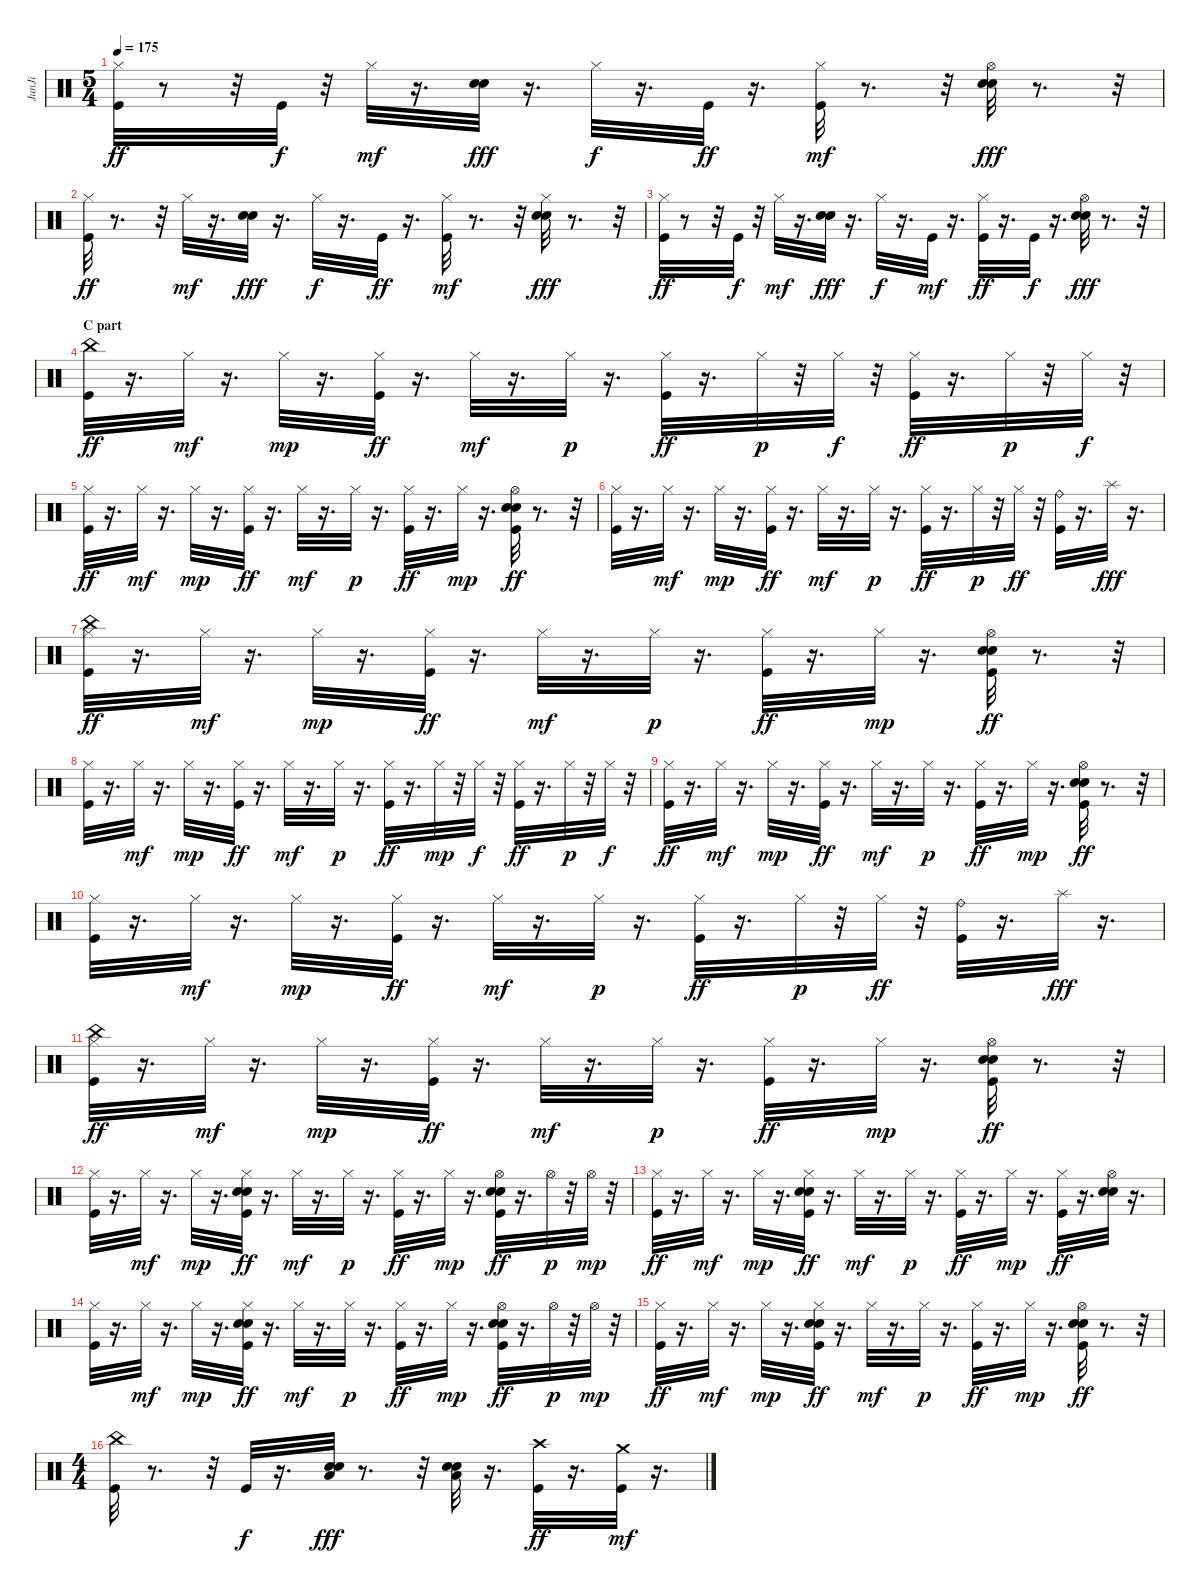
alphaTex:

\track ("JunJi" "JunJi") {instrument percussion}
\staff {score}
\articulation defaults
\ts (5 4)
\tempo 175
\clef neutral
\ks c
("Hi-Hat (closed)" "Kick (hit)").32{dy ff} r.8 r.32 "Kick (hit)".32{dy f} r.32 "Hi-Hat (closed)".32{dy mf} r.16{d} ("Electric Snare (hit)" "Snare (hit) 2").32{dy fff} r.16{d} "Hi-Hat (closed)".32{dy f} r.16{d} "Kick (hit)".32{dy ff} r.16{d} ("Hi-Hat (closed)" "Kick (hit)").32{dy mf} r.8{d} r.32 ("Hi-Hat (open)" "Electric Snare (hit)" "Snare (hit) 2").32{dy fff} r.8{d} r.32 |
("Hi-Hat (closed)" "Kick (hit)").32{dy ff} r.8{d} r.32 "Hi-Hat (closed)".32{dy mf} r.16{d} ("Electric Snare (hit)" "Snare (hit) 2").32{dy fff} r.16{d} "Hi-Hat (closed)".32{dy f} r.16{d} "Kick (hit)".32{dy ff} r.16{d} ("Hi-Hat (closed)" "Kick (hit)").32{dy mf} r.8{d} r.32 ("Hi-Hat (closed)" "Electric Snare (hit)" "Snare (hit) 2").32{dy fff} r.8{d} r.32 |
("Hi-Hat (closed)" "Kick (hit)").32{dy ff} r.8 r.32 "Kick (hit)".32{dy f} r.32 "Hi-Hat (closed)".32{dy mf} r.16{d} ("Electric Snare (hit)" "Snare (hit) 2").32{dy fff} r.16{d} "Hi-Hat (closed)".32{dy f} r.16{d} "Kick (hit)".32{dy mf} r.16{d} ("Hi-Hat (closed)" "Kick (hit)").32{dy ff} r.16{d} "Kick (hit)".32{dy f} r.16{d} ("Hi-Hat (open)" "Electric Snare (hit)" "Snare (hit) 2").32{dy fff} r.8{d} r.32 |
\section ("" "C part")
("China (hit)" "Kick (hit)").32{dy ff} r.16{d} "Hi-Hat (closed)".32{dy mf} r.16{d} "Hi-Hat (closed)".32{dy mp} r.16{d} ("Hi-Hat (closed)" "Kick (hit)").32{dy ff} r.16{d} "Hi-Hat (closed)".32{dy mf} r.16{d} "Hi-Hat (closed)".32{dy p} r.16{d} ("Hi-Hat (closed)" "Kick (hit)").32{dy ff} r.16{d} "Hi-Hat (closed)".32{dy p} r.32 "Hi-Hat (closed)".32{dy f} r.32 ("Hi-Hat (closed)" "Kick (hit)").32{dy ff} r.16{d} "Hi-Hat (closed)".32{dy p} r.32 "Hi-Hat (closed)".32{dy f} r.32 |
("Hi-Hat (closed)" "Kick (hit)").32{dy ff} r.16{d} "Hi-Hat (closed)".32{dy mf} r.16{d} "Hi-Hat (closed)".32{dy mp} r.16{d} ("Hi-Hat (closed)" "Kick (hit)").32{dy ff} r.16{d} "Hi-Hat (closed)".32{dy mf} r.16{d} "Hi-Hat (closed)".32{dy p} r.16{d} ("Hi-Hat (closed)" "Kick (hit)").32{dy ff} r.16{d} "Hi-Hat (closed)".32{dy mp} r.16{d} ("Hi-Hat (open)" "Electric Snare (hit)" "Kick (hit)" "Snare (hit) 2").32{dy ff} r.8{d} r.32 |
("Hi-Hat (closed)" "Kick (hit)").32 r.16{d} "Hi-Hat (closed)".32{dy mf} r.16{d} "Hi-Hat (closed)".32{dy mp} r.16{d} ("Hi-Hat (closed)" "Kick (hit)").32{dy ff} r.16{d} "Hi-Hat (closed)".32{dy mf} r.16{d} "Hi-Hat (closed)".32{dy p} r.16{d} ("Hi-Hat (closed)" "Kick (hit)").32{dy ff} r.16{d} "Hi-Hat (closed)".32{dy p} r.32 "Hi-Hat (closed)".32{dy ff} r.32 ("Ride (bell)" "Kick (hit)").32 r.16{d} "Splash (hit)".32{dy fff} r.16{d} |
("Hi-Hat (closed)" "China (hit)" "Kick (hit)").32{dy ff} r.16{d} "Hi-Hat (closed)".32{dy mf} r.16{d} "Hi-Hat (closed)".32{dy mp} r.16{d} ("Hi-Hat (closed)" "Kick (hit)").32{dy ff} r.16{d} "Hi-Hat (closed)".32{dy mf} r.16{d} "Hi-Hat (closed)".32{dy p} r.16{d} ("Hi-Hat (closed)" "Kick (hit)").32{dy ff} r.16{d} "Hi-Hat (closed)".32{dy mp} r.16{d} ("Hi-Hat (open)" "Electric Snare (hit)" "Kick (hit)" "Snare (hit) 2").32{dy ff} r.8{d} r.32 |
("Hi-Hat (closed)" "Kick (hit)").32 r.16{d} "Hi-Hat (closed)".32{dy mf} r.16{d} "Hi-Hat (closed)".32{dy mp} r.16{d} ("Hi-Hat (closed)" "Kick (hit)").32{dy ff} r.16{d} "Hi-Hat (closed)".32{dy mf} r.16{d} "Hi-Hat (closed)".32{dy p} r.16{d} ("Hi-Hat (closed)" "Kick (hit)").32{dy ff} r.16{d} "Hi-Hat (closed)".32{dy mp} r.32 "Hi-Hat (closed)".32{dy f} r.32 ("Hi-Hat (closed)" "Kick (hit)").32{dy ff} r.16{d} "Hi-Hat (closed)".32{dy p} r.32 "Hi-Hat (closed)".32{dy f} r.32 |
("Hi-Hat (closed)" "Kick (hit)").32{dy ff} r.16{d} "Hi-Hat (closed)".32{dy mf} r.16{d} "Hi-Hat (closed)".32{dy mp} r.16{d} ("Hi-Hat (closed)" "Kick (hit)").32{dy ff} r.16{d} "Hi-Hat (closed)".32{dy mf} r.16{d} "Hi-Hat (closed)".32{dy p} r.16{d} ("Hi-Hat (closed)" "Kick (hit)").32{dy ff} r.16{d} "Hi-Hat (closed)".32{dy mp} r.16{d} ("Hi-Hat (open)" "Electric Snare (hit)" "Kick (hit)" "Snare (hit) 2").32{dy ff} r.8{d} r.32 |
("Hi-Hat (closed)" "Kick (hit)").32 r.16{d} "Hi-Hat (closed)".32{dy mf} r.16{d} "Hi-Hat (closed)".32{dy mp} r.16{d} ("Hi-Hat (closed)" "Kick (hit)").32{dy ff} r.16{d} "Hi-Hat (closed)".32{dy mf} r.16{d} "Hi-Hat (closed)".32{dy p} r.16{d} ("Hi-Hat (closed)" "Kick (hit)").32{dy ff} r.16{d} "Hi-Hat (closed)".32{dy p} r.32 "Hi-Hat (closed)".32{dy ff} r.32 ("Ride (bell)" "Kick (hit)").32 r.16{d} "Splash (hit)".32{dy fff} r.16{d} |
("Hi-Hat (closed)" "China (hit)" "Kick (hit)").32{dy ff} r.16{d} "Hi-Hat (closed)".32{dy mf} r.16{d} "Hi-Hat (closed)".32{dy mp} r.16{d} ("Hi-Hat (closed)" "Kick (hit)").32{dy ff} r.16{d} "Hi-Hat (closed)".32{dy mf} r.16{d} "Hi-Hat (closed)".32{dy p} r.16{d} ("Hi-Hat (closed)" "Kick (hit)").32{dy ff} r.16{d} "Hi-Hat (closed)".32{dy mp} r.16{d} ("Hi-Hat (open)" "Electric Snare (hit)" "Kick (hit)" "Snare (hit) 2").32{dy ff} r.8{d} r.32 |
("Hi-Hat (closed)" "Kick (hit)").32 r.16{d} "Hi-Hat (closed)".32{dy mf} r.16{d} "Hi-Hat (closed)".32{dy mp} r.16{d} ("Hi-Hat (closed)" "Electric Snare (hit)" "Kick (hit)" "Snare (hit) 2").32{dy ff} r.16{d} "Hi-Hat (closed)".32{dy mf} r.16{d} "Hi-Hat (closed)".32{dy p} r.16{d} ("Hi-Hat (closed)" "Kick (hit)").32{dy ff} r.16{d} "Hi-Hat (closed)".32{dy mp} r.16{d} ("Hi-Hat (open)" "Electric Snare (hit)" "Kick (hit)" "Snare (hit) 2").32{dy ff} r.16{d} "Hi-Hat (open)".32{dy p} r.32 "Hi-Hat (open)".32{dy mp} r.32 |
("Hi-Hat (closed)" "Kick (hit)").32{dy ff} r.16{d} "Hi-Hat (closed)".32{dy mf} r.16{d} "Hi-Hat (closed)".32{dy mp} r.16{d} ("Hi-Hat (closed)" "Electric Snare (hit)" "Kick (hit)" "Snare (hit) 2").32{dy ff} r.16{d} "Hi-Hat (closed)".32{dy mf} r.16{d} "Hi-Hat (closed)".32{dy p} r.16{d} ("Hi-Hat (closed)" "Kick (hit)").32{dy ff} r.16{d} "Hi-Hat (closed)".32{dy mp} r.16{d} ("Hi-Hat (closed)" "Kick (hit)").32{dy ff} r.16{d} ("Hi-Hat (open)" "Electric Snare (hit)" "Snare (hit) 2").32 r.16{d} |
("Hi-Hat (closed)" "Kick (hit)").32 r.16{d} "Hi-Hat (closed)".32{dy mf} r.16{d} "Hi-Hat (closed)".32{dy mp} r.16{d} ("Hi-Hat (closed)" "Electric Snare (hit)" "Kick (hit)" "Snare (hit) 2").32{dy ff} r.16{d} "Hi-Hat (closed)".32{dy mf} r.16{d} "Hi-Hat (closed)".32{dy p} r.16{d} ("Hi-Hat (closed)" "Kick (hit)").32{dy ff} r.16{d} "Hi-Hat (closed)".32{dy mp} r.16{d} ("Hi-Hat (open)" "Electric Snare (hit)" "Kick (hit)" "Snare (hit) 2").32{dy ff} r.16{d} "Hi-Hat (open)".32{dy p} r.32 "Hi-Hat (open)".32{dy mp} r.32 |
("Hi-Hat (closed)" "Kick (hit)").32{dy ff} r.16{d} "Hi-Hat (closed)".32{dy mf} r.16{d} "Hi-Hat (closed)".32{dy mp} r.16{d} ("Hi-Hat (closed)" "Electric Snare (hit)" "Kick (hit)" "Snare (hit) 2").32{dy ff} r.16{d} "Hi-Hat (closed)".32{dy mf} r.16{d} "Hi-Hat (closed)".32{dy p} r.16{d} ("Hi-Hat (closed)" "Kick (hit)").32{dy ff} r.16{d} "Hi-Hat (closed)".32{dy mp} r.16{d} ("Hi-Hat (open)" "Electric Snare (hit)" "Kick (hit)" "Snare (hit) 2").32{dy ff} r.8{d} r.32 |
\ts (4 4)
("China (hit)" "Kick (hit)").32 r.8{d} r.32 "Kick (hit)".32{dy f} r.16{d} ("Electric Snare (hit)" "Low Floor Tom (hit)" "Snare (hit) 2").32{dy fff} r.8{d} r.32 ("Electric Snare (hit)" "Low Floor Tom (hit)" "Snare (hit) 2").32 r.16{d} ("Crash high (hit)" "Kick (hit)").32{dy ff} r.16{d} ("Crash medium (hit)" "Kick (hit)").32{dy mf} r.16{d}
